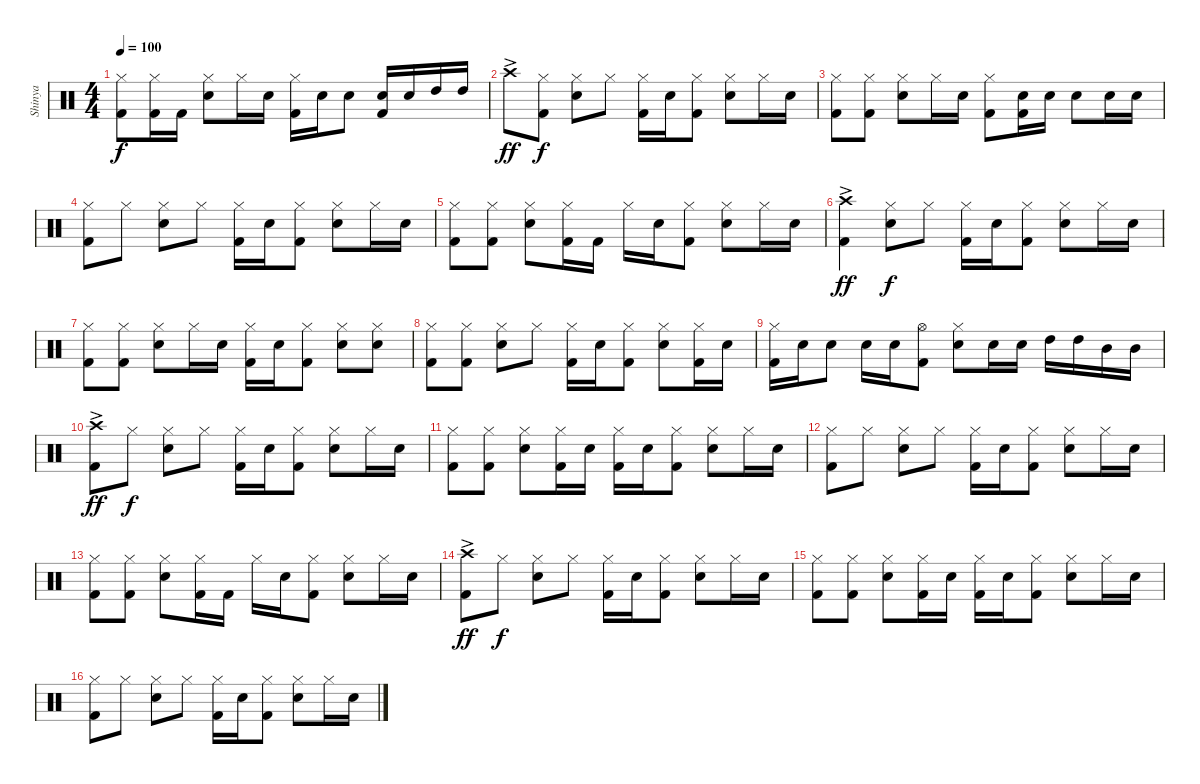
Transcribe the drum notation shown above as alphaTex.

\track ("Shinya" "Shinya") {instrument percussion}
\staff {score}
\articulation defaults
\ts (4 4)
\tempo 100
\clef neutral
\ks c
("Hi-Hat (closed)" "Kick (hit) 2").8{dy f} ("Hi-Hat (closed)" "Kick (hit) 2").16 "Kick (hit) 2".16 ("Hi-Hat (closed)" "Snare (hit) 2").8 "Hi-Hat (closed)".16 "Snare (hit) 2".16 ("Hi-Hat (closed)" "Kick (hit) 2").16 "Snare (hit) 2".16 "Snare (hit) 2".8 ("Snare (hit) 2" "Kick (hit) 2").16 "Snare (hit) 2".16 "High Tom (hit)".16 "High Tom (hit)".16 |
"Crash high (hit)"{ac}.8{dy ff} ("Hi-Hat (closed)" "Kick (hit) 2").8{dy f} ("Hi-Hat (closed)" "Snare (hit) 2").8 "Hi-Hat (closed)".8 ("Hi-Hat (closed)" "Kick (hit) 2").16 "Snare (hit) 2".16 ("Hi-Hat (closed)" "Kick (hit) 2").8 ("Hi-Hat (closed)" "Snare (hit) 2").8 "Hi-Hat (closed)".16 "Snare (hit) 2".16 |
("Hi-Hat (closed)" "Kick (hit) 2").8 ("Hi-Hat (closed)" "Kick (hit) 2").8 ("Hi-Hat (closed)" "Snare (hit) 2").8 "Hi-Hat (closed)".16 "Snare (hit) 2".16 ("Hi-Hat (closed)" "Kick (hit) 2").8 ("Snare (hit) 2" "Kick (hit) 2").16 "Snare (hit) 2".16 "Snare (hit) 2".8 "Snare (hit) 2".16 "Snare (hit) 2".16 |
("Hi-Hat (closed)" "Kick (hit) 2").8 "Hi-Hat (closed)".8 ("Hi-Hat (closed)" "Snare (hit) 2").8 "Hi-Hat (closed)".8 ("Hi-Hat (closed)" "Kick (hit) 2").16 "Snare (hit) 2".16 ("Hi-Hat (closed)" "Kick (hit) 2").8 ("Hi-Hat (closed)" "Snare (hit) 2").8 "Hi-Hat (closed)".16 "Snare (hit) 2".16 |
("Hi-Hat (closed)" "Kick (hit) 2").8 ("Hi-Hat (closed)" "Kick (hit) 2").8 ("Hi-Hat (closed)" "Snare (hit) 2").8 ("Hi-Hat (closed)" "Kick (hit) 2").16 "Kick (hit) 2".16 "Hi-Hat (closed)".16 "Snare (hit) 2".16 ("Hi-Hat (closed)" "Kick (hit) 2").8 ("Hi-Hat (closed)" "Snare (hit) 2").8 "Hi-Hat (closed)".16 "Snare (hit) 2".16 |
("Crash high (hit)"{ac} "Kick (hit) 2").4{dy ff} ("Hi-Hat (closed)" "Snare (hit) 2").8{dy f} "Hi-Hat (closed)".8 ("Hi-Hat (closed)" "Kick (hit) 2").16 "Snare (hit) 2".16 ("Hi-Hat (closed)" "Kick (hit) 2").8 ("Hi-Hat (closed)" "Snare (hit) 2").8 "Hi-Hat (closed)".16 "Snare (hit) 2".16 |
("Hi-Hat (closed)" "Kick (hit) 2").8 ("Hi-Hat (closed)" "Kick (hit) 2").8 ("Hi-Hat (closed)" "Snare (hit) 2").8 "Hi-Hat (closed)".16 "Snare (hit) 2".16 ("Hi-Hat (closed)" "Kick (hit) 2").16 "Snare (hit) 2".16 ("Hi-Hat (closed)" "Kick (hit) 2").8 ("Hi-Hat (closed)" "Snare (hit) 2").8 ("Hi-Hat (closed)" "Snare (hit) 2").8 |
("Hi-Hat (closed)" "Kick (hit) 2").8 ("Hi-Hat (closed)" "Kick (hit) 2").8 ("Hi-Hat (closed)" "Snare (hit) 2").8 "Hi-Hat (closed)".8 ("Hi-Hat (closed)" "Kick (hit) 2").16 "Snare (hit) 2".16 ("Hi-Hat (closed)" "Kick (hit) 2").8 ("Hi-Hat (closed)" "Snare (hit) 2").8 ("Hi-Hat (closed)" "Kick (hit) 2").16 "Snare (hit) 2".16 |
("Hi-Hat (closed)" "Kick (hit) 2").16 "Snare (hit) 2".16 "Snare (hit) 2".8 "Snare (hit) 2".16 "Snare (hit) 2".16 ("Hi-Hat (open)" "Kick (hit) 2").8 ("Hi-Hat (closed)" "Snare (hit) 2").8 "Snare (hit) 2".16 "Snare (hit) 2".16 "High Tom (hit)".16 "High Tom (hit)".16 "Mid Tom (hit)".16 "Mid Tom (hit)".16 |
("Crash high (hit)"{ac} "Kick (hit) 2").8{dy ff} "Hi-Hat (closed)".8{dy f} ("Hi-Hat (closed)" "Snare (hit) 2").8 "Hi-Hat (closed)".8 ("Hi-Hat (closed)" "Kick (hit) 2").16 "Snare (hit) 2".16 ("Hi-Hat (closed)" "Kick (hit) 2").8 ("Hi-Hat (closed)" "Snare (hit) 2").8 "Hi-Hat (closed)".16 "Snare (hit) 2".16 |
("Hi-Hat (closed)" "Kick (hit) 2").8 ("Hi-Hat (closed)" "Kick (hit) 2").8 ("Hi-Hat (closed)" "Snare (hit) 2").8 ("Hi-Hat (closed)" "Kick (hit) 2").16 "Snare (hit) 2".16 ("Hi-Hat (closed)" "Kick (hit) 2").16 "Snare (hit) 2".16 ("Hi-Hat (closed)" "Kick (hit) 2").8 ("Hi-Hat (closed)" "Snare (hit) 2").8 "Hi-Hat (closed)".16 "Snare (hit) 2".16 |
("Hi-Hat (closed)" "Kick (hit) 2").8 "Hi-Hat (closed)".8 ("Hi-Hat (closed)" "Snare (hit) 2").8 "Hi-Hat (closed)".8 ("Hi-Hat (closed)" "Kick (hit) 2").16 "Snare (hit) 2".16 ("Hi-Hat (closed)" "Kick (hit) 2").8 ("Hi-Hat (closed)" "Snare (hit) 2").8 "Hi-Hat (closed)".16 "Snare (hit) 2".16 |
("Hi-Hat (closed)" "Kick (hit) 2").8 ("Hi-Hat (closed)" "Kick (hit) 2").8 ("Hi-Hat (closed)" "Snare (hit) 2").8 ("Hi-Hat (closed)" "Kick (hit) 2").16 "Kick (hit) 2".16 "Hi-Hat (closed)".16 "Snare (hit) 2".16 ("Hi-Hat (closed)" "Kick (hit) 2").8 ("Hi-Hat (closed)" "Snare (hit) 2").8 "Hi-Hat (closed)".16 "Snare (hit) 2".16 |
("Crash high (hit)"{ac} "Kick (hit) 2").8{dy ff} "Hi-Hat (closed)".8{dy f} ("Hi-Hat (closed)" "Snare (hit) 2").8 "Hi-Hat (closed)".8 ("Hi-Hat (closed)" "Kick (hit) 2").16 "Snare (hit) 2".16 ("Hi-Hat (closed)" "Kick (hit) 2").8 ("Hi-Hat (closed)" "Snare (hit) 2").8 "Hi-Hat (closed)".16 "Snare (hit) 2".16 |
("Hi-Hat (closed)" "Kick (hit) 2").8 ("Hi-Hat (closed)" "Kick (hit) 2").8 ("Hi-Hat (closed)" "Snare (hit) 2").8 ("Hi-Hat (closed)" "Kick (hit) 2").16 "Snare (hit) 2".16 ("Hi-Hat (closed)" "Kick (hit) 2").16 "Snare (hit) 2".16 ("Hi-Hat (closed)" "Kick (hit) 2").8 ("Hi-Hat (closed)" "Snare (hit) 2").8 "Hi-Hat (closed)".16 "Snare (hit) 2".16 |
("Hi-Hat (closed)" "Kick (hit) 2").8 "Hi-Hat (closed)".8 ("Hi-Hat (closed)" "Snare (hit) 2").8 "Hi-Hat (closed)".8 ("Hi-Hat (closed)" "Kick (hit) 2").16 "Snare (hit) 2".16 ("Hi-Hat (closed)" "Kick (hit) 2").8 ("Hi-Hat (closed)" "Snare (hit) 2").8 "Hi-Hat (closed)".16 "Snare (hit) 2".16
